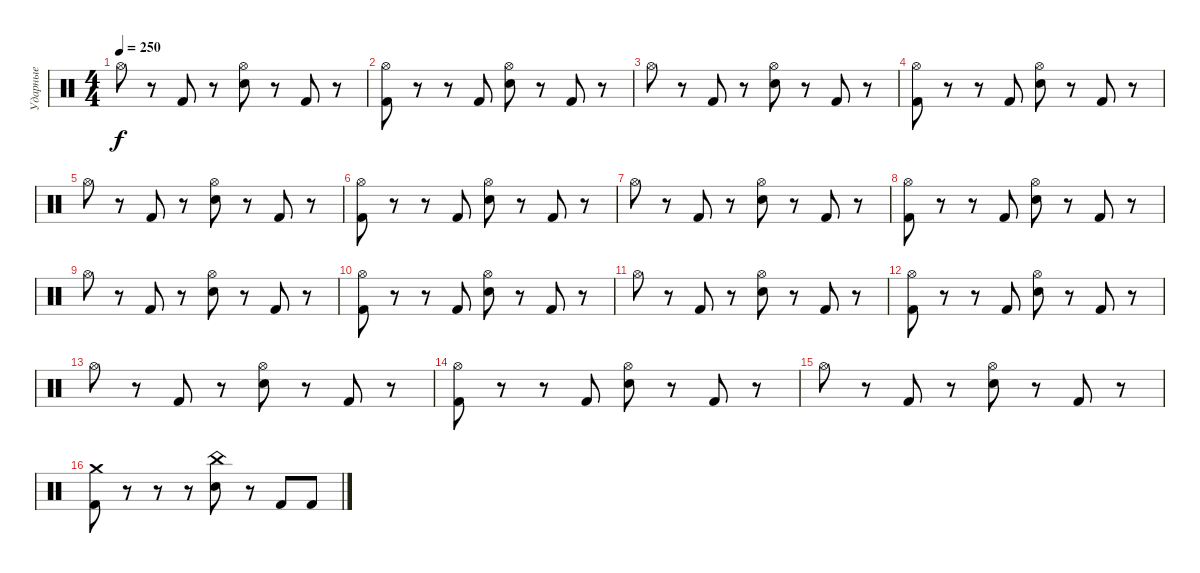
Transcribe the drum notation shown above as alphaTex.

\track ("Ударные" "Ударные") {instrument percussion}
\staff {score}
\articulation defaults
\ts (4 4)
\tempo 250
\clef neutral
\ks c "Hi-Hat (open)".8{dy f}
r.8 "Kick (hit) 2".8 r.8 ("Hi-Hat (open)" "Snare (hit) 2").8 r.8 "Kick (hit) 2".8 r.8 |
("Hi-Hat (open)" "Kick (hit) 2").8 r.8 r.8 "Kick (hit) 2".8 ("Hi-Hat (open)" "Snare (hit) 2").8 r.8 "Kick (hit) 2".8 r.8 |
"Hi-Hat (open)".8 r.8 "Kick (hit) 2".8 r.8 ("Hi-Hat (open)" "Snare (hit) 2").8 r.8 "Kick (hit) 2".8 r.8 |
("Hi-Hat (open)" "Kick (hit) 2").8 r.8 r.8 "Kick (hit) 2".8 ("Hi-Hat (open)" "Snare (hit) 2").8 r.8 "Kick (hit) 2".8 r.8 |
"Hi-Hat (open)".8 r.8 "Kick (hit) 2".8 r.8 ("Hi-Hat (open)" "Snare (hit) 2").8 r.8 "Kick (hit) 2".8 r.8 |
("Hi-Hat (open)" "Kick (hit) 2").8 r.8 r.8 "Kick (hit) 2".8 ("Hi-Hat (open)" "Snare (hit) 2").8 r.8 "Kick (hit) 2".8 r.8 |
"Hi-Hat (open)".8 r.8 "Kick (hit) 2".8 r.8 ("Hi-Hat (open)" "Snare (hit) 2").8 r.8 "Kick (hit) 2".8 r.8 |
("Hi-Hat (open)" "Kick (hit) 2").8 r.8 r.8 "Kick (hit) 2".8 ("Hi-Hat (open)" "Snare (hit) 2").8 r.8 "Kick (hit) 2".8 r.8 |
"Hi-Hat (open)".8 r.8 "Kick (hit) 2".8 r.8 ("Hi-Hat (open)" "Snare (hit) 2").8 r.8 "Kick (hit) 2".8 r.8 |
("Hi-Hat (open)" "Kick (hit) 2").8 r.8 r.8 "Kick (hit) 2".8 ("Hi-Hat (open)" "Snare (hit) 2").8 r.8 "Kick (hit) 2".8 r.8 |
"Hi-Hat (open)".8 r.8 "Kick (hit) 2".8 r.8 ("Hi-Hat (open)" "Snare (hit) 2").8 r.8 "Kick (hit) 2".8 r.8 |
("Hi-Hat (open)" "Kick (hit) 2").8 r.8 r.8 "Kick (hit) 2".8 ("Hi-Hat (open)" "Snare (hit) 2").8 r.8 "Kick (hit) 2".8 r.8 |
"Hi-Hat (open)".8 r.8 "Kick (hit) 2".8 r.8 ("Hi-Hat (open)" "Snare (hit) 2").8 r.8 "Kick (hit) 2".8 r.8 |
("Hi-Hat (open)" "Kick (hit) 2").8 r.8 r.8 "Kick (hit) 2".8 ("Hi-Hat (open)" "Snare (hit) 2").8 r.8 "Kick (hit) 2".8 r.8 |
"Hi-Hat (open)".8 r.8 "Kick (hit) 2".8 r.8 ("Hi-Hat (open)" "Snare (hit) 2").8 r.8 "Kick (hit) 2".8 r.8 |
("Crash medium (hit)" "Kick (hit) 2").8 r.8 r.8 r.8 ("Snare (hit) 2" "China (hit)").8 r.8 "Kick (hit) 2".8 "Kick (hit) 2".8
